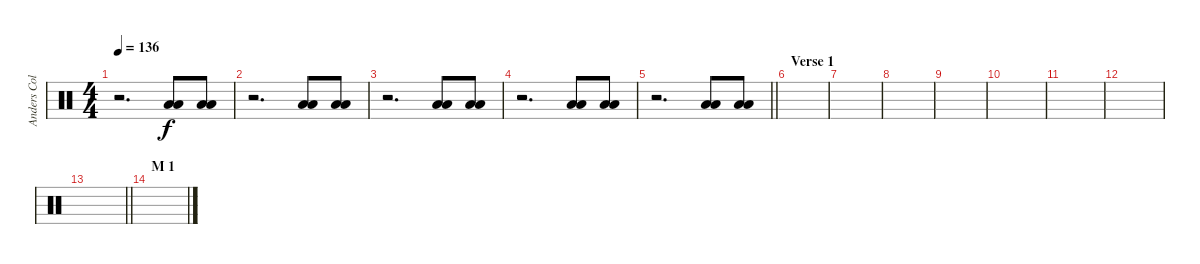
\track ("Anders Colsefini" "Anders Col") {instrument percussion}
\staff {score}
\articulation defaults
\ts (4 4)
\tempo 136
\clef neutral
\ks c
r.2{d dy f} ("Low Floor Tom (hit)" "Low Floor Tom (hit)").8 ("Low Floor Tom (hit)" "Low Floor Tom (hit)").8 |
r.2{d} ("Low Floor Tom (hit)" "Low Floor Tom (hit)").8 ("Low Floor Tom (hit)" "Low Floor Tom (hit)").8 |
r.2{d} ("Low Floor Tom (hit)" "Low Floor Tom (hit)").8 ("Low Floor Tom (hit)" "Low Floor Tom (hit)").8 |
r.2{d} ("Low Floor Tom (hit)" "Low Floor Tom (hit)").8 ("Low Floor Tom (hit)" "Low Floor Tom (hit)").8 |
\barLineRight lightlight
r.2{d} ("Low Floor Tom (hit)" "Low Floor Tom (hit)").8 ("Low Floor Tom (hit)" "Low Floor Tom (hit)").8 |
\section ("" "Verse 1")
|
|
|
|
|
|
|
\barLineRight lightlight
|
\section ("" "M 1")
